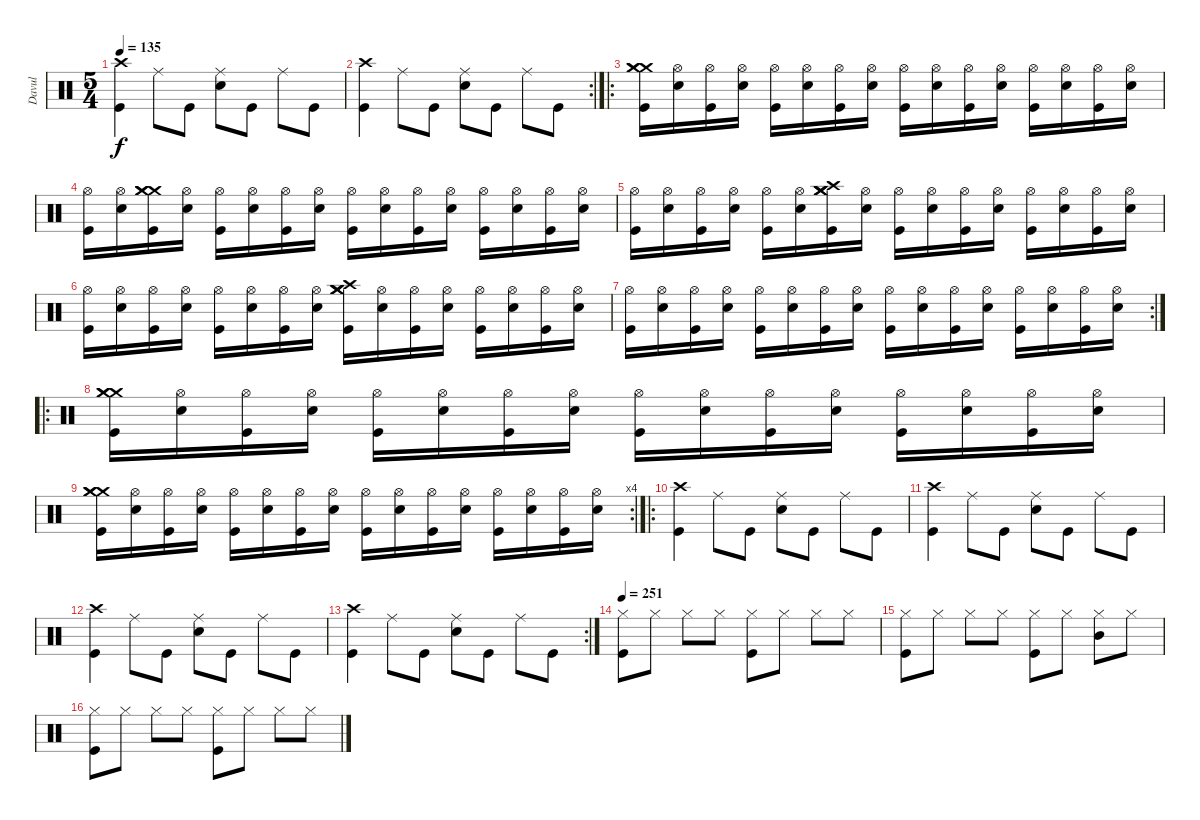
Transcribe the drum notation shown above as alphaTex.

\track ("Davul" "Davul") {instrument percussion}
\staff {score}
\articulation defaults
\ts (5 4)
\tempo 135
\clef neutral
\ks c
("Crash high (hit)" "Kick (hit)").4{dy f} "Ride (middle)".8 "Kick (hit)".8 ("Ride (middle)" "Electric Snare (hit)").8 "Kick (hit)".8 "Ride (middle)".8 "Kick (hit)".8 |
\rc 2
("Crash high (hit)" "Kick (hit)").4 "Ride (middle)".8 "Kick (hit)".8 ("Ride (middle)" "Electric Snare (hit)").8 "Kick (hit)".8 "Ride (middle)".8 "Kick (hit)".8 |
\ro
("Crash medium (hit)" "Crash medium (hit)" "Crash medium (hit)" "Kick (hit)").16 ("Hi-Hat (open)" "Electric Snare (hit)").16 ("Hi-Hat (open)" "Kick (hit)").16 ("Hi-Hat (open)" "Electric Snare (hit)").16 ("Hi-Hat (open)" "Kick (hit)").16 ("Hi-Hat (open)" "Electric Snare (hit)").16 ("Hi-Hat (open)" "Kick (hit)").16 ("Hi-Hat (open)" "Electric Snare (hit)").16 ("Hi-Hat (open)" "Kick (hit)").16 ("Hi-Hat (open)" "Electric Snare (hit)").16 ("Hi-Hat (open)" "Kick (hit)").16 ("Hi-Hat (open)" "Electric Snare (hit)").16 ("Hi-Hat (open)" "Kick (hit)").16 ("Hi-Hat (open)" "Electric Snare (hit)").16 ("Hi-Hat (open)" "Kick (hit)").16 ("Hi-Hat (open)" "Electric Snare (hit)").16 |
("Hi-Hat (open)" "Kick (hit)").16 ("Hi-Hat (open)" "Electric Snare (hit)").16 ("Crash medium (hit)" "Crash medium (hit)" "Crash medium (hit)" "Kick (hit)").16 ("Hi-Hat (open)" "Electric Snare (hit)").16 ("Hi-Hat (open)" "Kick (hit)").16 ("Hi-Hat (open)" "Electric Snare (hit)").16 ("Hi-Hat (open)" "Kick (hit)").16 ("Hi-Hat (open)" "Electric Snare (hit)").16 ("Hi-Hat (open)" "Kick (hit)").16 ("Hi-Hat (open)" "Electric Snare (hit)").16 ("Hi-Hat (open)" "Kick (hit)").16 ("Hi-Hat (open)" "Electric Snare (hit)").16 ("Hi-Hat (open)" "Kick (hit)").16 ("Hi-Hat (open)" "Electric Snare (hit)").16 ("Hi-Hat (open)" "Kick (hit)").16 ("Hi-Hat (open)" "Electric Snare (hit)").16 |
("Hi-Hat (open)" "Kick (hit)").16 ("Hi-Hat (open)" "Electric Snare (hit)").16 ("Hi-Hat (open)" "Kick (hit)").16 ("Hi-Hat (open)" "Electric Snare (hit)").16 ("Hi-Hat (open)" "Kick (hit)").16 ("Hi-Hat (open)" "Electric Snare (hit)").16 ("Crash medium (hit)" "Crash medium (hit)" "Crash medium (hit)" "Crash high (hit)" "Kick (hit)").16 ("Hi-Hat (open)" "Electric Snare (hit)").16 ("Hi-Hat (open)" "Kick (hit)").16 ("Hi-Hat (open)" "Electric Snare (hit)").16 ("Hi-Hat (open)" "Kick (hit)").16 ("Hi-Hat (open)" "Electric Snare (hit)").16 ("Hi-Hat (open)" "Kick (hit)").16 ("Hi-Hat (open)" "Electric Snare (hit)").16 ("Hi-Hat (open)" "Kick (hit)").16 ("Hi-Hat (open)" "Electric Snare (hit)").16 |
("Hi-Hat (open)" "Kick (hit)").16 ("Hi-Hat (open)" "Electric Snare (hit)").16 ("Hi-Hat (open)" "Kick (hit)").16 ("Hi-Hat (open)" "Electric Snare (hit)").16 ("Hi-Hat (open)" "Kick (hit)").16 ("Hi-Hat (open)" "Electric Snare (hit)").16 ("Hi-Hat (open)" "Kick (hit)").16 ("Hi-Hat (open)" "Electric Snare (hit)").16 ("Crash medium (hit)" "Crash medium (hit)" "Crash medium (hit)" "Crash high (hit)" "Kick (hit)").16 ("Hi-Hat (open)" "Electric Snare (hit)").16 ("Hi-Hat (open)" "Kick (hit)").16 ("Hi-Hat (open)" "Electric Snare (hit)").16 ("Hi-Hat (open)" "Kick (hit)").16 ("Hi-Hat (open)" "Electric Snare (hit)").16 ("Hi-Hat (open)" "Kick (hit)").16 ("Hi-Hat (open)" "Electric Snare (hit)").16 |
\rc 2
("Hi-Hat (open)" "Kick (hit)").16 ("Hi-Hat (open)" "Electric Snare (hit)").16 ("Hi-Hat (open)" "Kick (hit)").16 ("Hi-Hat (open)" "Electric Snare (hit)").16 ("Hi-Hat (open)" "Kick (hit)").16 ("Hi-Hat (open)" "Electric Snare (hit)").16 ("Hi-Hat (open)" "Kick (hit)").16 ("Hi-Hat (open)" "Electric Snare (hit)").16 ("Hi-Hat (open)" "Kick (hit)").16 ("Hi-Hat (open)" "Electric Snare (hit)").16 ("Hi-Hat (open)" "Kick (hit)").16 ("Hi-Hat (open)" "Electric Snare (hit)").16 ("Hi-Hat (open)" "Kick (hit)").16 ("Hi-Hat (open)" "Electric Snare (hit)").16 ("Hi-Hat (open)" "Kick (hit)").16 ("Hi-Hat (open)" "Electric Snare (hit)").16 |
\ro
("Crash medium (hit)" "Crash medium (hit)" "Crash medium (hit)" "Kick (hit)").16 ("Hi-Hat (open)" "Electric Snare (hit)").16 ("Hi-Hat (open)" "Kick (hit)").16 ("Hi-Hat (open)" "Electric Snare (hit)").16 ("Hi-Hat (open)" "Kick (hit)").16 ("Hi-Hat (open)" "Electric Snare (hit)").16 ("Hi-Hat (open)" "Kick (hit)").16 ("Hi-Hat (open)" "Electric Snare (hit)").16 ("Hi-Hat (open)" "Kick (hit)").16 ("Hi-Hat (open)" "Electric Snare (hit)").16 ("Hi-Hat (open)" "Kick (hit)").16 ("Hi-Hat (open)" "Electric Snare (hit)").16 ("Hi-Hat (open)" "Kick (hit)").16 ("Hi-Hat (open)" "Electric Snare (hit)").16 ("Hi-Hat (open)" "Kick (hit)").16 ("Hi-Hat (open)" "Electric Snare (hit)").16 |
\rc 4
("Crash medium (hit)" "Crash medium (hit)" "Crash medium (hit)" "Kick (hit)").16 ("Hi-Hat (open)" "Electric Snare (hit)").16 ("Hi-Hat (open)" "Kick (hit)").16 ("Hi-Hat (open)" "Electric Snare (hit)").16 ("Hi-Hat (open)" "Kick (hit)").16 ("Hi-Hat (open)" "Electric Snare (hit)").16 ("Hi-Hat (open)" "Kick (hit)").16 ("Hi-Hat (open)" "Electric Snare (hit)").16 ("Hi-Hat (open)" "Kick (hit)").16 ("Hi-Hat (open)" "Electric Snare (hit)").16 ("Hi-Hat (open)" "Kick (hit)").16 ("Hi-Hat (open)" "Electric Snare (hit)").16 ("Hi-Hat (open)" "Kick (hit)").16 ("Hi-Hat (open)" "Electric Snare (hit)").16 ("Hi-Hat (open)" "Kick (hit)").16 ("Hi-Hat (open)" "Electric Snare (hit)").16 |
\ro
("Crash high (hit)" "Kick (hit)").4 "Ride (middle)".8 "Kick (hit)".8 ("Ride (middle)" "Electric Snare (hit)").8 "Kick (hit)".8 "Ride (middle)".8 "Kick (hit)".8 |
("Crash high (hit)" "Kick (hit)").4 "Ride (middle)".8 "Kick (hit)".8 ("Ride (middle)" "Electric Snare (hit)").8 "Kick (hit)".8 "Ride (middle)".8 "Kick (hit)".8 |
("Crash high (hit)" "Kick (hit)").4 "Ride (middle)".8 "Kick (hit)".8 ("Ride (middle)" "Electric Snare (hit)").8 "Kick (hit)".8 "Ride (middle)".8 "Kick (hit)".8 |
\rc 2
("Crash high (hit)" "Kick (hit)").4 "Ride (middle)".8 "Kick (hit)".8 ("Ride (middle)" "Electric Snare (hit)").8 "Kick (hit)".8 "Ride (middle)".8 "Kick (hit)".8 |
\tempo 251
("Hi-Hat (closed)" "Kick (hit)").8 "Hi-Hat (closed)".8 "Hi-Hat (closed)".8 "Hi-Hat (closed)".8 ("Hi-Hat (closed)" "Kick (hit)").8 "Hi-Hat (closed)".8 "Hi-Hat (closed)".8 "Hi-Hat (closed)".8 |
("Hi-Hat (closed)" "Kick (hit)").8 "Hi-Hat (closed)".8 "Hi-Hat (closed)".8 "Hi-Hat (closed)".8 ("Hi-Hat (closed)" "Kick (hit)").8 "Hi-Hat (closed)".8 ("Mid Tom (hit)" "Hi-Hat (closed)").8 "Hi-Hat (closed)".8 |
("Hi-Hat (closed)" "Kick (hit)").8 "Hi-Hat (closed)".8 "Hi-Hat (closed)".8 "Hi-Hat (closed)".8 ("Hi-Hat (closed)" "Kick (hit)").8 "Hi-Hat (closed)".8 "Hi-Hat (closed)".8 "Hi-Hat (closed)".8
